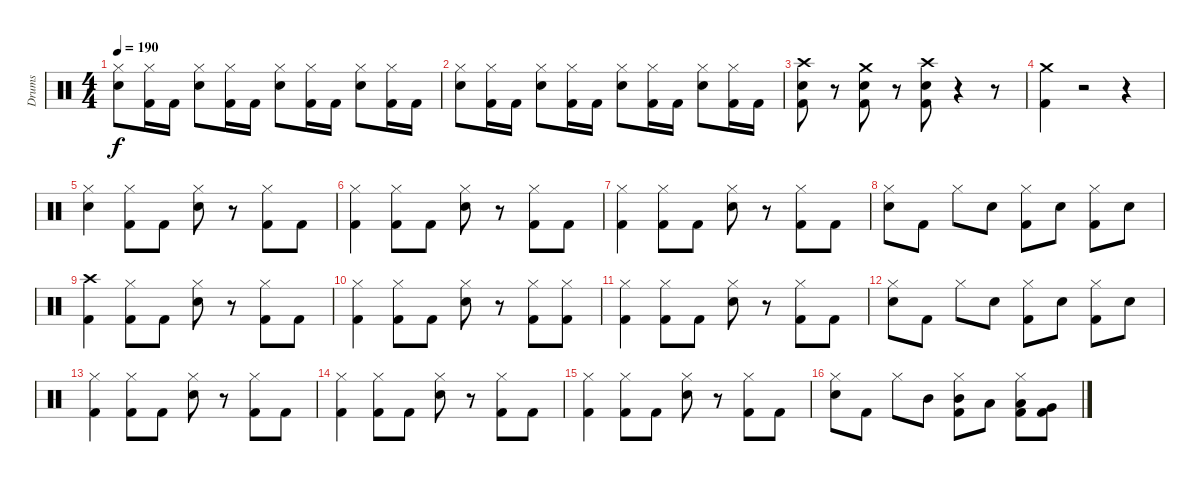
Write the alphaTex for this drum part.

\track ("Drums" "Drums") {instrument percussion}
\staff {score}
\articulation defaults
\ts (4 4)
\tempo 190
\clef neutral
\ks c
("Snare (hit) 2" "Hi-Hat (closed)").8{dy f} ("Kick (hit) 2" "Hi-Hat (closed)").16 "Kick (hit) 2".16 ("Snare (hit) 2" "Hi-Hat (closed)").8 ("Kick (hit) 2" "Hi-Hat (closed)").16 "Kick (hit) 2".16 ("Snare (hit) 2" "Hi-Hat (closed)").8 ("Kick (hit) 2" "Hi-Hat (closed)").16 "Kick (hit) 2".16 ("Snare (hit) 2" "Hi-Hat (closed)").8 ("Kick (hit) 2" "Hi-Hat (closed)").16 "Kick (hit) 2".16 |
("Snare (hit) 2" "Hi-Hat (closed)").8 ("Kick (hit) 2" "Hi-Hat (closed)").16 "Kick (hit) 2".16 ("Snare (hit) 2" "Hi-Hat (closed)").8 ("Kick (hit) 2" "Hi-Hat (closed)").16 "Kick (hit) 2".16 ("Snare (hit) 2" "Hi-Hat (closed)").8 ("Kick (hit) 2" "Hi-Hat (closed)").16 "Kick (hit) 2".16 ("Snare (hit) 2" "Hi-Hat (closed)").8 ("Kick (hit) 2" "Hi-Hat (closed)").16 "Kick (hit) 2".16 |
("Crash high (hit)" "Kick (hit) 2" "Snare (hit) 2").8 r.8 ("Crash medium (hit)" "Kick (hit) 2" "Snare (hit) 2").8 r.8 ("Crash high (hit)" "Kick (hit) 2" "Snare (hit) 2").8 r.4 r.8 |
("Kick (hit) 2" "Crash medium (hit)").4 r.2 r.4 |
("Snare (hit) 2" "Hi-Hat (closed)").4 ("Kick (hit) 2" "Hi-Hat (closed)").8 "Kick (hit) 2".8 ("Snare (hit) 2" "Hi-Hat (closed)").8 r.8 ("Kick (hit) 2" "Hi-Hat (closed)").8 "Kick (hit) 2".8 |
("Kick (hit) 2" "Hi-Hat (closed)").4 ("Kick (hit) 2" "Hi-Hat (closed)").8 "Kick (hit) 2".8 ("Snare (hit) 2" "Hi-Hat (closed)").8 r.8 ("Kick (hit) 2" "Hi-Hat (closed)").8 "Kick (hit) 2".8 |
("Kick (hit) 2" "Hi-Hat (closed)").4 ("Kick (hit) 2" "Hi-Hat (closed)").8 "Kick (hit) 2".8 ("Snare (hit) 2" "Hi-Hat (closed)").8 r.8 ("Kick (hit) 2" "Hi-Hat (closed)").8 "Kick (hit) 2".8 |
("Snare (hit) 2" "Hi-Hat (closed)").8 "Kick (hit) 2".8 "Hi-Hat (closed)".8 "Snare (hit) 2".8 ("Kick (hit) 2" "Hi-Hat (closed)").8 "Snare (hit) 2".8 ("Kick (hit) 2" "Hi-Hat (closed)").8 "Snare (hit) 2".8 |
("Kick (hit) 2" "Crash high (hit)").4 ("Kick (hit) 2" "Hi-Hat (closed)").8 "Kick (hit) 2".8 ("Snare (hit) 2" "Hi-Hat (closed)").8 r.8 ("Kick (hit) 2" "Hi-Hat (closed)").8 "Kick (hit) 2".8 |
("Kick (hit) 2" "Hi-Hat (closed)").4 ("Kick (hit) 2" "Hi-Hat (closed)").8 "Kick (hit) 2".8 ("Snare (hit) 2" "Hi-Hat (closed)").8 r.8 ("Kick (hit) 2" "Hi-Hat (closed)").8 ("Kick (hit) 2" "Hi-Hat (closed)").8 |
("Kick (hit) 2" "Hi-Hat (closed)").4 ("Kick (hit) 2" "Hi-Hat (closed)").8 "Kick (hit) 2".8 ("Snare (hit) 2" "Hi-Hat (closed)").8 r.8 ("Kick (hit) 2" "Hi-Hat (closed)").8 "Kick (hit) 2".8 |
("Snare (hit) 2" "Hi-Hat (closed)").8 "Kick (hit) 2".8 "Hi-Hat (closed)".8 "Snare (hit) 2".8 ("Kick (hit) 2" "Hi-Hat (closed)").8 "Snare (hit) 2".8 ("Kick (hit) 2" "Hi-Hat (closed)").8 "Snare (hit) 2".8 |
("Kick (hit) 2" "Hi-Hat (closed)").4 ("Kick (hit) 2" "Hi-Hat (closed)").8 "Kick (hit) 2".8 ("Snare (hit) 2" "Hi-Hat (closed)").8 r.8 ("Kick (hit) 2" "Hi-Hat (closed)").8 "Kick (hit) 2".8 |
("Kick (hit) 2" "Hi-Hat (closed)").4 ("Kick (hit) 2" "Hi-Hat (closed)").8 "Kick (hit) 2".8 ("Snare (hit) 2" "Hi-Hat (closed)").8 r.8 ("Kick (hit) 2" "Hi-Hat (closed)").8 "Kick (hit) 2".8 |
("Kick (hit) 2" "Hi-Hat (closed)").4 ("Kick (hit) 2" "Hi-Hat (closed)").8 "Kick (hit) 2".8 ("Snare (hit) 2" "Hi-Hat (closed)").8 r.8 ("Kick (hit) 2" "Hi-Hat (closed)").8 "Kick (hit) 2".8 |
("Snare (hit) 2" "Hi-Hat (closed)").8 "Kick (hit) 2".8 "Hi-Hat (closed)".8 "Mid Tom (hit)".8 ("Kick (hit) 2" "Hi-Hat (closed)" "Mid Tom (hit)").8 "Low Tom (hit)".8 ("Kick (hit) 2" "Hi-Hat (closed)" "Low Tom (hit)").8 ("Kick (hit) 2" "Very Low Tom (hit)").8
